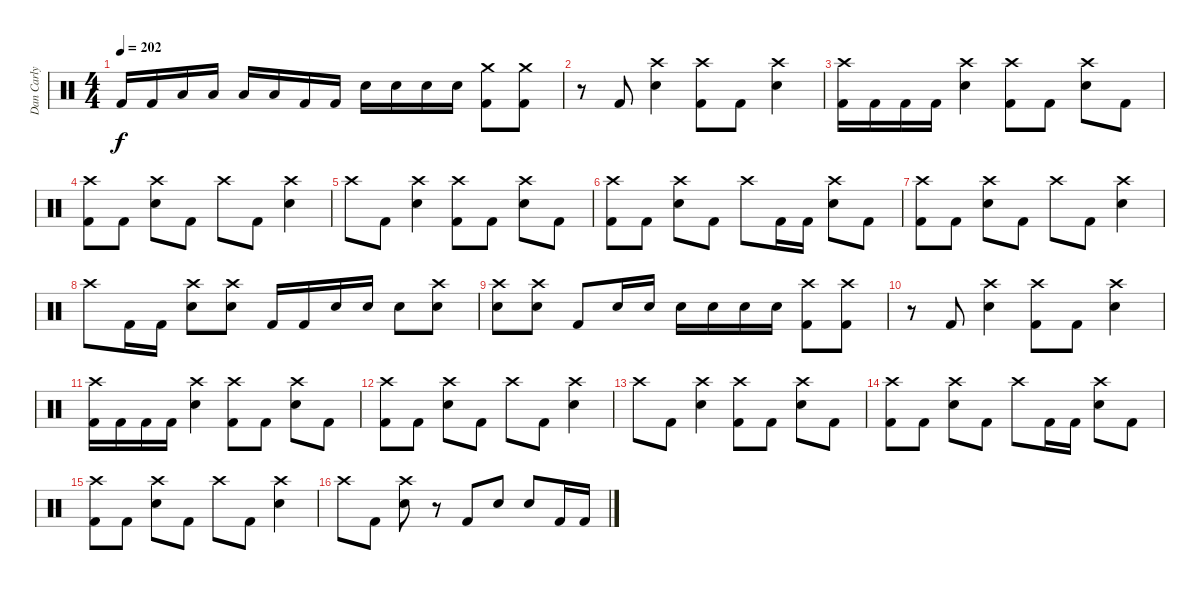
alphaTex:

\track ("Dan Carly" "Dan Carly") {instrument percussion}
\staff {score}
\articulation defaults
\ts (4 4)
\tempo 202
\clef neutral
\ks c "Kick (hit) 2".16{dy f} "Kick (hit) 2".16 "Low Tom (hit)".16 "Low Tom (hit)".16 "Low Tom (hit)".16 "Low Tom (hit)".16 "Kick (hit) 2".16 "Kick (hit) 2".16 "Electric Snare (hit)".16 "Electric Snare (hit)".16 "Electric Snare (hit)".16 "Electric Snare (hit)".16
("Crash medium (hit)" "Kick (hit) 2").8 ("Crash medium (hit)" "Kick (hit) 2").8 |
r.8 "Kick (hit) 2".8 ("Crash high (hit)" "Electric Snare (hit)").4 ("Crash high (hit)" "Kick (hit) 2").8 "Kick (hit) 2".8 ("Crash high (hit)" "Electric Snare (hit)").4 |
("Crash high (hit)" "Kick (hit) 2").16 "Kick (hit) 2".16 "Kick (hit) 2".16 "Kick (hit) 2".16 ("Crash high (hit)" "Electric Snare (hit)").4 ("Crash high (hit)" "Kick (hit) 2").8 "Kick (hit) 2".8 ("Crash high (hit)" "Electric Snare (hit)").8 "Kick (hit) 2".8 |
("Crash high (hit)" "Kick (hit) 2").8 "Kick (hit) 2".8 ("Crash high (hit)" "Electric Snare (hit)").8 "Kick (hit) 2".8 "Crash high (hit)".8 "Kick (hit) 2".8 ("Crash high (hit)" "Electric Snare (hit)").4 |
"Crash high (hit)".8 "Kick (hit) 2".8 ("Crash high (hit)" "Electric Snare (hit)").4 ("Crash high (hit)" "Kick (hit) 2").8 "Kick (hit) 2".8 ("Crash high (hit)" "Electric Snare (hit)").8 "Kick (hit) 2".8 |
("Crash high (hit)" "Kick (hit) 2").8 "Kick (hit) 2".8 ("Crash high (hit)" "Electric Snare (hit)").8 "Kick (hit) 2".8 "Crash high (hit)".8 "Kick (hit) 2".16 "Kick (hit) 2".16 ("Crash high (hit)" "Electric Snare (hit)").8 "Kick (hit) 2".8 |
("Crash high (hit)" "Kick (hit) 2").8 "Kick (hit) 2".8 ("Crash high (hit)" "Electric Snare (hit)").8 "Kick (hit) 2".8 "Crash high (hit)".8 "Kick (hit) 2".8 ("Crash high (hit)" "Electric Snare (hit)").4 |
"Crash high (hit)".8 "Kick (hit) 2".16 "Kick (hit) 2".16 ("Crash high (hit)" "Electric Snare (hit)").8 ("Crash high (hit)" "Electric Snare (hit)").8 "Kick (hit) 2".16 "Kick (hit) 2".16 "Electric Snare (hit)".16 "Electric Snare (hit)".16 "Electric Snare (hit)".8 ("Crash high (hit)" "Electric Snare (hit)").8 |
("Crash high (hit)" "Electric Snare (hit)").8 ("Crash high (hit)" "Electric Snare (hit)").8 "Kick (hit) 2".8 "Electric Snare (hit)".16 "Electric Snare (hit)".16 "Electric Snare (hit)".16 "Electric Snare (hit)".16 "Electric Snare (hit)".16 "Electric Snare (hit)".16 ("Crash high (hit)" "Kick (hit) 2").8 ("Crash high (hit)" "Kick (hit) 2").8 |
r.8 "Kick (hit) 2".8 ("Crash high (hit)" "Electric Snare (hit)").4 ("Crash high (hit)" "Kick (hit) 2").8 "Kick (hit) 2".8 ("Crash high (hit)" "Electric Snare (hit)").4 |
("Crash high (hit)" "Kick (hit) 2").16 "Kick (hit) 2".16 "Kick (hit) 2".16 "Kick (hit) 2".16 ("Crash high (hit)" "Electric Snare (hit)").4 ("Crash high (hit)" "Kick (hit) 2").8 "Kick (hit) 2".8 ("Crash high (hit)" "Electric Snare (hit)").8 "Kick (hit) 2".8 |
("Crash high (hit)" "Kick (hit) 2").8 "Kick (hit) 2".8 ("Crash high (hit)" "Electric Snare (hit)").8 "Kick (hit) 2".8 "Crash high (hit)".8 "Kick (hit) 2".8 ("Crash high (hit)" "Electric Snare (hit)").4 |
"Crash high (hit)".8 "Kick (hit) 2".8 ("Crash high (hit)" "Electric Snare (hit)").4 ("Crash high (hit)" "Kick (hit) 2").8 "Kick (hit) 2".8 ("Crash high (hit)" "Electric Snare (hit)").8 "Kick (hit) 2".8 |
("Crash high (hit)" "Kick (hit) 2").8 "Kick (hit) 2".8 ("Crash high (hit)" "Electric Snare (hit)").8 "Kick (hit) 2".8 "Crash high (hit)".8 "Kick (hit) 2".16 "Kick (hit) 2".16 ("Crash high (hit)" "Electric Snare (hit)").8 "Kick (hit) 2".8 |
("Crash high (hit)" "Kick (hit) 2").8 "Kick (hit) 2".8 ("Crash high (hit)" "Electric Snare (hit)").8 "Kick (hit) 2".8 "Crash high (hit)".8 "Kick (hit) 2".8 ("Crash high (hit)" "Electric Snare (hit)").4 |
"Crash high (hit)".8 "Kick (hit) 2".8 ("Crash high (hit)" "Electric Snare (hit)").8 r.8 "Kick (hit) 2".8 "Electric Snare (hit)".8 "Electric Snare (hit)".8 "Kick (hit) 2".16 "Kick (hit) 2".16
